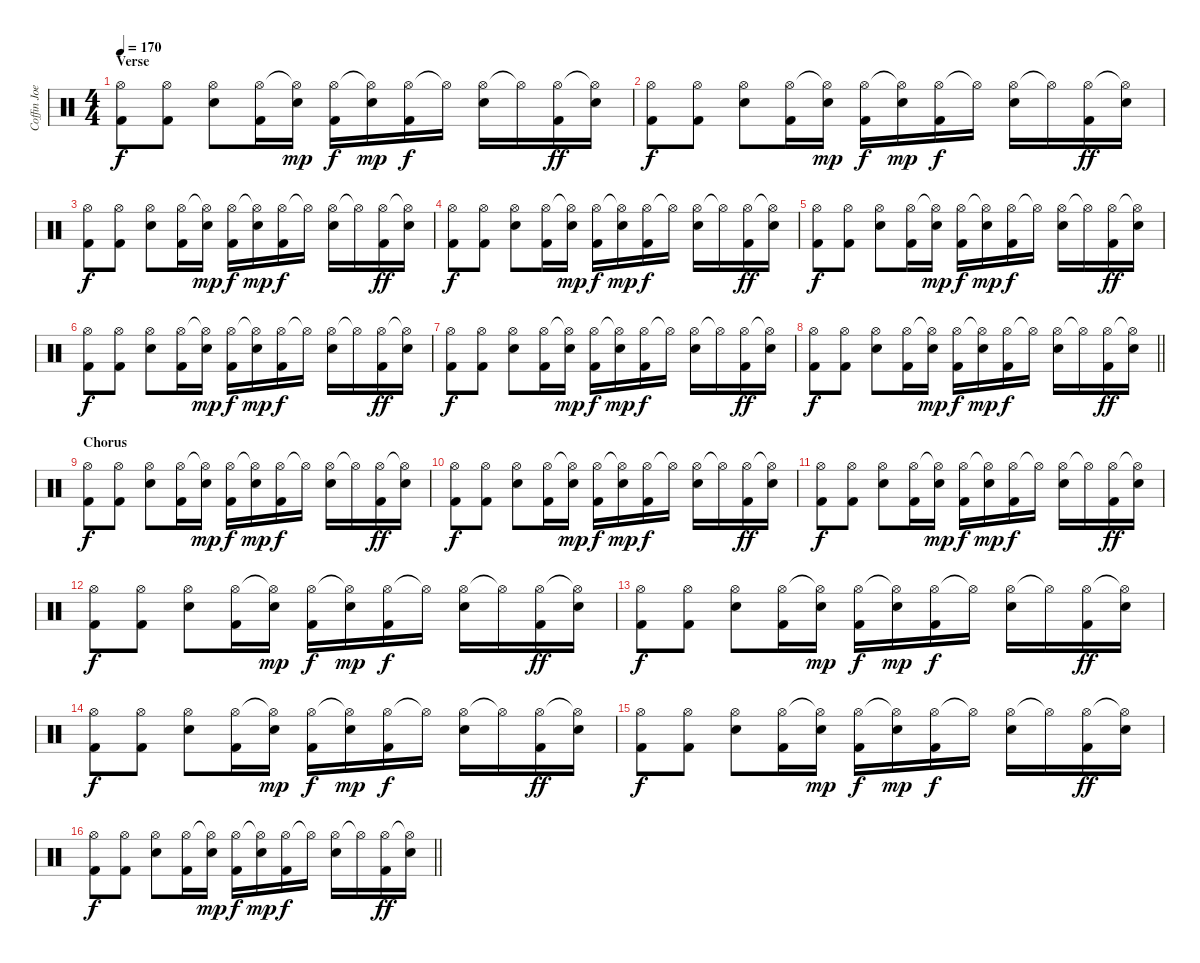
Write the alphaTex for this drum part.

\track ("Coffin Joe" "Coffin Joe") {instrument percussion}
\staff {score}
\articulation defaults
\ts (4 4)
\section ("" "Verse")
\tempo 170
\clef neutral
\ks c
("Hi-Hat (open)" "Kick (hit) 2").8{dy f} ("Hi-Hat (open)" "Kick (hit) 2").8 ("Hi-Hat (open)" "Snare (hit) 2").8 ("Hi-Hat (open)" "Kick (hit) 2").16 ("Hi-Hat (open)"{t} "Snare (hit) 2").16{dy mp} ("Hi-Hat (open)" "Kick (hit) 2").16{dy f} ("Hi-Hat (open)"{t} "Snare (hit) 2").16{dy mp} ("Hi-Hat (open)" "Kick (hit) 2").16{dy f} "Hi-Hat (open)"{t}.16 ("Hi-Hat (open)" "Snare (hit) 2").16 "Hi-Hat (open)"{t}.16 ("Hi-Hat (open)" "Kick (hit) 2").16{dy ff} ("Hi-Hat (open)"{t} "Snare (hit) 2").16 |
("Hi-Hat (open)" "Kick (hit) 2").8{dy f} ("Hi-Hat (open)" "Kick (hit) 2").8 ("Hi-Hat (open)" "Snare (hit) 2").8 ("Hi-Hat (open)" "Kick (hit) 2").16 ("Hi-Hat (open)"{t} "Snare (hit) 2").16{dy mp} ("Hi-Hat (open)" "Kick (hit) 2").16{dy f} ("Hi-Hat (open)"{t} "Snare (hit) 2").16{dy mp} ("Hi-Hat (open)" "Kick (hit) 2").16{dy f} "Hi-Hat (open)"{t}.16 ("Hi-Hat (open)" "Snare (hit) 2").16 "Hi-Hat (open)"{t}.16 ("Hi-Hat (open)" "Kick (hit) 2").16{dy ff} ("Hi-Hat (open)"{t} "Snare (hit) 2").16 |
("Hi-Hat (open)" "Kick (hit) 2").8{dy f} ("Hi-Hat (open)" "Kick (hit) 2").8 ("Hi-Hat (open)" "Snare (hit) 2").8 ("Hi-Hat (open)" "Kick (hit) 2").16 ("Hi-Hat (open)"{t} "Snare (hit) 2").16{dy mp} ("Hi-Hat (open)" "Kick (hit) 2").16{dy f} ("Hi-Hat (open)"{t} "Snare (hit) 2").16{dy mp} ("Hi-Hat (open)" "Kick (hit) 2").16{dy f} "Hi-Hat (open)"{t}.16 ("Hi-Hat (open)" "Snare (hit) 2").16 "Hi-Hat (open)"{t}.16 ("Hi-Hat (open)" "Kick (hit) 2").16{dy ff} ("Hi-Hat (open)"{t} "Snare (hit) 2").16 |
("Hi-Hat (open)" "Kick (hit) 2").8{dy f} ("Hi-Hat (open)" "Kick (hit) 2").8 ("Hi-Hat (open)" "Snare (hit) 2").8 ("Hi-Hat (open)" "Kick (hit) 2").16 ("Hi-Hat (open)"{t} "Snare (hit) 2").16{dy mp} ("Hi-Hat (open)" "Kick (hit) 2").16{dy f} ("Hi-Hat (open)"{t} "Snare (hit) 2").16{dy mp} ("Hi-Hat (open)" "Kick (hit) 2").16{dy f} "Hi-Hat (open)"{t}.16 ("Hi-Hat (open)" "Snare (hit) 2").16 "Hi-Hat (open)"{t}.16 ("Hi-Hat (open)" "Kick (hit) 2").16{dy ff} ("Hi-Hat (open)"{t} "Snare (hit) 2").16 |
("Hi-Hat (open)" "Kick (hit) 2").8{dy f} ("Hi-Hat (open)" "Kick (hit) 2").8 ("Hi-Hat (open)" "Snare (hit) 2").8 ("Hi-Hat (open)" "Kick (hit) 2").16 ("Hi-Hat (open)"{t} "Snare (hit) 2").16{dy mp} ("Hi-Hat (open)" "Kick (hit) 2").16{dy f} ("Hi-Hat (open)"{t} "Snare (hit) 2").16{dy mp} ("Hi-Hat (open)" "Kick (hit) 2").16{dy f} "Hi-Hat (open)"{t}.16 ("Hi-Hat (open)" "Snare (hit) 2").16 "Hi-Hat (open)"{t}.16 ("Hi-Hat (open)" "Kick (hit) 2").16{dy ff} ("Hi-Hat (open)"{t} "Snare (hit) 2").16 |
("Hi-Hat (open)" "Kick (hit) 2").8{dy f} ("Hi-Hat (open)" "Kick (hit) 2").8 ("Hi-Hat (open)" "Snare (hit) 2").8 ("Hi-Hat (open)" "Kick (hit) 2").16 ("Hi-Hat (open)"{t} "Snare (hit) 2").16{dy mp} ("Hi-Hat (open)" "Kick (hit) 2").16{dy f} ("Hi-Hat (open)"{t} "Snare (hit) 2").16{dy mp} ("Hi-Hat (open)" "Kick (hit) 2").16{dy f} "Hi-Hat (open)"{t}.16 ("Hi-Hat (open)" "Snare (hit) 2").16 "Hi-Hat (open)"{t}.16 ("Hi-Hat (open)" "Kick (hit) 2").16{dy ff} ("Hi-Hat (open)"{t} "Snare (hit) 2").16 |
("Hi-Hat (open)" "Kick (hit) 2").8{dy f} ("Hi-Hat (open)" "Kick (hit) 2").8 ("Hi-Hat (open)" "Snare (hit) 2").8 ("Hi-Hat (open)" "Kick (hit) 2").16 ("Hi-Hat (open)"{t} "Snare (hit) 2").16{dy mp} ("Hi-Hat (open)" "Kick (hit) 2").16{dy f} ("Hi-Hat (open)"{t} "Snare (hit) 2").16{dy mp} ("Hi-Hat (open)" "Kick (hit) 2").16{dy f} "Hi-Hat (open)"{t}.16 ("Hi-Hat (open)" "Snare (hit) 2").16 "Hi-Hat (open)"{t}.16 ("Hi-Hat (open)" "Kick (hit) 2").16{dy ff} ("Hi-Hat (open)"{t} "Snare (hit) 2").16 |
\barLineRight lightlight
("Hi-Hat (open)" "Kick (hit) 2").8{dy f} ("Hi-Hat (open)" "Kick (hit) 2").8 ("Hi-Hat (open)" "Snare (hit) 2").8 ("Hi-Hat (open)" "Kick (hit) 2").16 ("Hi-Hat (open)"{t} "Snare (hit) 2").16{dy mp} ("Hi-Hat (open)" "Kick (hit) 2").16{dy f} ("Hi-Hat (open)"{t} "Snare (hit) 2").16{dy mp} ("Hi-Hat (open)" "Kick (hit) 2").16{dy f} "Hi-Hat (open)"{t}.16 ("Hi-Hat (open)" "Snare (hit) 2").16 "Hi-Hat (open)"{t}.16 ("Hi-Hat (open)" "Kick (hit) 2").16{dy ff} ("Hi-Hat (open)"{t} "Snare (hit) 2").16 |
\section ("" "Chorus")
("Hi-Hat (open)" "Kick (hit) 2").8{dy f} ("Hi-Hat (open)" "Kick (hit) 2").8 ("Hi-Hat (open)" "Snare (hit) 2").8 ("Hi-Hat (open)" "Kick (hit) 2").16 ("Hi-Hat (open)"{t} "Snare (hit) 2").16{dy mp} ("Hi-Hat (open)" "Kick (hit) 2").16{dy f} ("Hi-Hat (open)"{t} "Snare (hit) 2").16{dy mp} ("Hi-Hat (open)" "Kick (hit) 2").16{dy f} "Hi-Hat (open)"{t}.16 ("Hi-Hat (open)" "Snare (hit) 2").16 "Hi-Hat (open)"{t}.16 ("Hi-Hat (open)" "Kick (hit) 2").16{dy ff} ("Hi-Hat (open)"{t} "Snare (hit) 2").16 |
("Hi-Hat (open)" "Kick (hit) 2").8{dy f} ("Hi-Hat (open)" "Kick (hit) 2").8 ("Hi-Hat (open)" "Snare (hit) 2").8 ("Hi-Hat (open)" "Kick (hit) 2").16 ("Hi-Hat (open)"{t} "Snare (hit) 2").16{dy mp} ("Hi-Hat (open)" "Kick (hit) 2").16{dy f} ("Hi-Hat (open)"{t} "Snare (hit) 2").16{dy mp} ("Hi-Hat (open)" "Kick (hit) 2").16{dy f} "Hi-Hat (open)"{t}.16 ("Hi-Hat (open)" "Snare (hit) 2").16 "Hi-Hat (open)"{t}.16 ("Hi-Hat (open)" "Kick (hit) 2").16{dy ff} ("Hi-Hat (open)"{t} "Snare (hit) 2").16 |
("Hi-Hat (open)" "Kick (hit) 2").8{dy f} ("Hi-Hat (open)" "Kick (hit) 2").8 ("Hi-Hat (open)" "Snare (hit) 2").8 ("Hi-Hat (open)" "Kick (hit) 2").16 ("Hi-Hat (open)"{t} "Snare (hit) 2").16{dy mp} ("Hi-Hat (open)" "Kick (hit) 2").16{dy f} ("Hi-Hat (open)"{t} "Snare (hit) 2").16{dy mp} ("Hi-Hat (open)" "Kick (hit) 2").16{dy f} "Hi-Hat (open)"{t}.16 ("Hi-Hat (open)" "Snare (hit) 2").16 "Hi-Hat (open)"{t}.16 ("Hi-Hat (open)" "Kick (hit) 2").16{dy ff} ("Hi-Hat (open)"{t} "Snare (hit) 2").16 |
("Hi-Hat (open)" "Kick (hit) 2").8{dy f} ("Hi-Hat (open)" "Kick (hit) 2").8 ("Hi-Hat (open)" "Snare (hit) 2").8 ("Hi-Hat (open)" "Kick (hit) 2").16 ("Hi-Hat (open)"{t} "Snare (hit) 2").16{dy mp} ("Hi-Hat (open)" "Kick (hit) 2").16{dy f} ("Hi-Hat (open)"{t} "Snare (hit) 2").16{dy mp} ("Hi-Hat (open)" "Kick (hit) 2").16{dy f} "Hi-Hat (open)"{t}.16 ("Hi-Hat (open)" "Snare (hit) 2").16 "Hi-Hat (open)"{t}.16 ("Hi-Hat (open)" "Kick (hit) 2").16{dy ff} ("Hi-Hat (open)"{t} "Snare (hit) 2").16 |
("Hi-Hat (open)" "Kick (hit) 2").8{dy f} ("Hi-Hat (open)" "Kick (hit) 2").8 ("Hi-Hat (open)" "Snare (hit) 2").8 ("Hi-Hat (open)" "Kick (hit) 2").16 ("Hi-Hat (open)"{t} "Snare (hit) 2").16{dy mp} ("Hi-Hat (open)" "Kick (hit) 2").16{dy f} ("Hi-Hat (open)"{t} "Snare (hit) 2").16{dy mp} ("Hi-Hat (open)" "Kick (hit) 2").16{dy f} "Hi-Hat (open)"{t}.16 ("Hi-Hat (open)" "Snare (hit) 2").16 "Hi-Hat (open)"{t}.16 ("Hi-Hat (open)" "Kick (hit) 2").16{dy ff} ("Hi-Hat (open)"{t} "Snare (hit) 2").16 |
("Hi-Hat (open)" "Kick (hit) 2").8{dy f} ("Hi-Hat (open)" "Kick (hit) 2").8 ("Hi-Hat (open)" "Snare (hit) 2").8 ("Hi-Hat (open)" "Kick (hit) 2").16 ("Hi-Hat (open)"{t} "Snare (hit) 2").16{dy mp} ("Hi-Hat (open)" "Kick (hit) 2").16{dy f} ("Hi-Hat (open)"{t} "Snare (hit) 2").16{dy mp} ("Hi-Hat (open)" "Kick (hit) 2").16{dy f} "Hi-Hat (open)"{t}.16 ("Hi-Hat (open)" "Snare (hit) 2").16 "Hi-Hat (open)"{t}.16 ("Hi-Hat (open)" "Kick (hit) 2").16{dy ff} ("Hi-Hat (open)"{t} "Snare (hit) 2").16 |
("Hi-Hat (open)" "Kick (hit) 2").8{dy f} ("Hi-Hat (open)" "Kick (hit) 2").8 ("Hi-Hat (open)" "Snare (hit) 2").8 ("Hi-Hat (open)" "Kick (hit) 2").16 ("Hi-Hat (open)"{t} "Snare (hit) 2").16{dy mp} ("Hi-Hat (open)" "Kick (hit) 2").16{dy f} ("Hi-Hat (open)"{t} "Snare (hit) 2").16{dy mp} ("Hi-Hat (open)" "Kick (hit) 2").16{dy f} "Hi-Hat (open)"{t}.16 ("Hi-Hat (open)" "Snare (hit) 2").16 "Hi-Hat (open)"{t}.16 ("Hi-Hat (open)" "Kick (hit) 2").16{dy ff} ("Hi-Hat (open)"{t} "Snare (hit) 2").16 |
\barLineRight lightlight
("Hi-Hat (open)" "Kick (hit) 2").8{dy f} ("Hi-Hat (open)" "Kick (hit) 2").8 ("Hi-Hat (open)" "Snare (hit) 2").8 ("Hi-Hat (open)" "Kick (hit) 2").16 ("Hi-Hat (open)"{t} "Snare (hit) 2").16{dy mp} ("Hi-Hat (open)" "Kick (hit) 2").16{dy f} ("Hi-Hat (open)"{t} "Snare (hit) 2").16{dy mp} ("Hi-Hat (open)" "Kick (hit) 2").16{dy f} "Hi-Hat (open)"{t}.16 ("Hi-Hat (open)" "Snare (hit) 2").16 "Hi-Hat (open)"{t}.16 ("Hi-Hat (open)" "Kick (hit) 2").16{dy ff} ("Hi-Hat (open)"{t} "Snare (hit) 2").16
